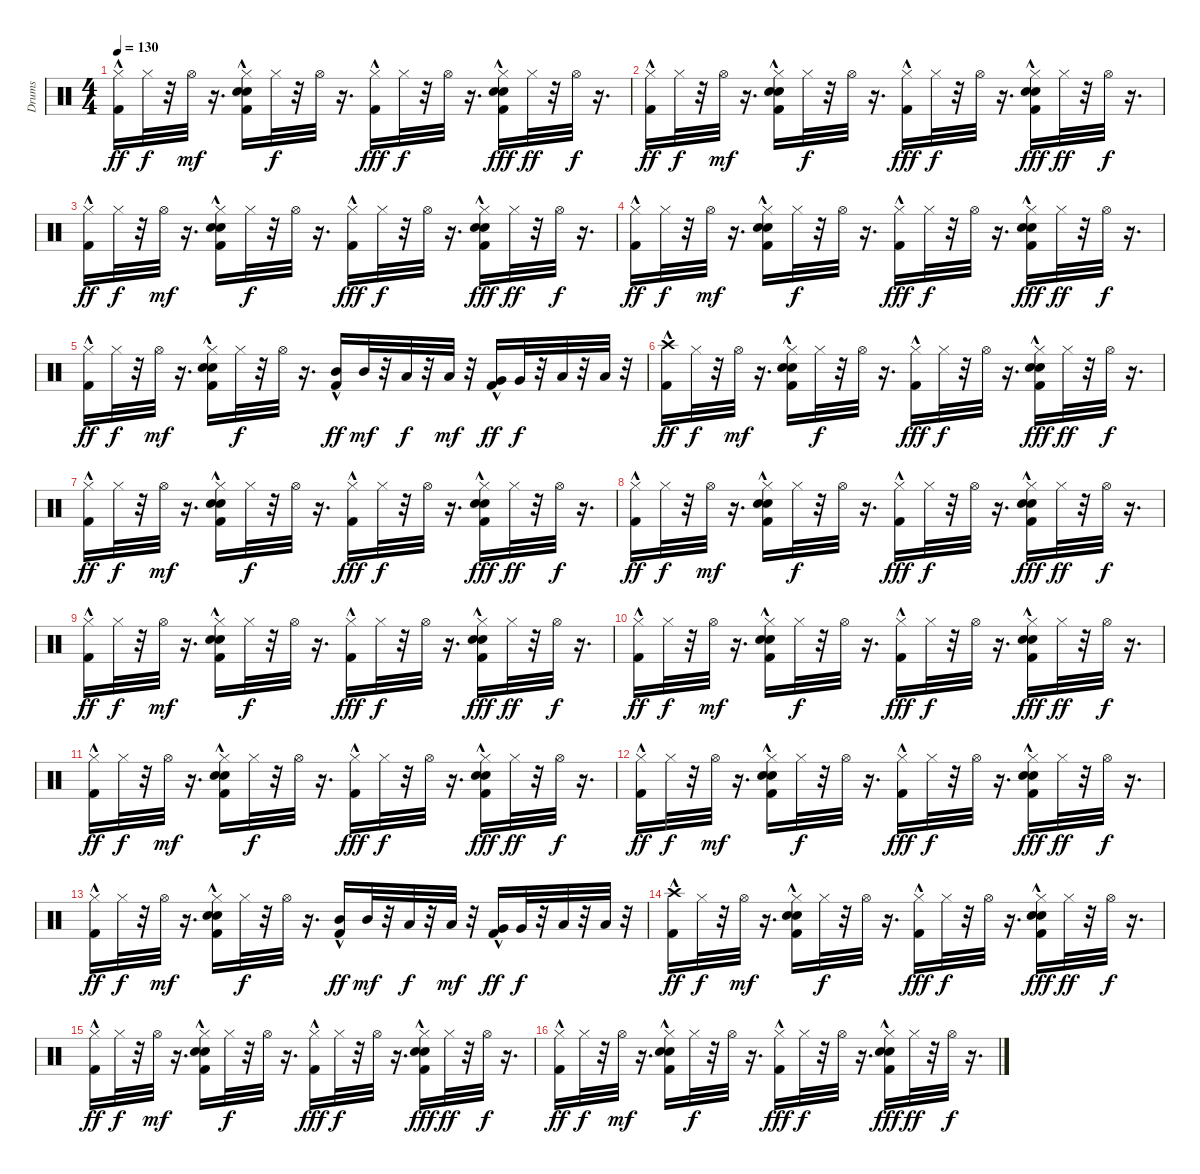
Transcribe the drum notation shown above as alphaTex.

\track ("Drums" "Drums") {instrument percussion}
\staff {score}
\articulation defaults
\ts (4 4)
\tempo 130
\clef neutral
\ks c
("Kick (hit) 2"{hac} "Hi-Hat (closed)").16{dy ff} "Hi-Hat (closed)".32{dy f} r.32 "Hi-Hat (open)".32{dy mf} r.16{d} ("Kick (hit) 2"{hac} "Hand Clap (hit)" "Electric Snare (hit)" "Hi-Hat (closed)").16 "Hi-Hat (closed)".32{dy f} r.32 "Hi-Hat (open)".32 r.16{d} ("Kick (hit) 2"{hac} "Hi-Hat (closed)").16{dy fff} "Hi-Hat (closed)".32{dy f} r.32 "Hi-Hat (open)".32 r.16{d} ("Kick (hit) 2"{hac} "Hand Clap (hit)" "Electric Snare (hit)" "Hi-Hat (closed)").16{dy fff} "Hi-Hat (closed)".32{dy ff} r.32 "Hi-Hat (open)".32{dy f} r.16{d} |
("Kick (hit) 2"{hac} "Hi-Hat (closed)").16{dy ff} "Hi-Hat (closed)".32{dy f} r.32 "Hi-Hat (open)".32{dy mf} r.16{d} ("Kick (hit) 2"{hac} "Hand Clap (hit)" "Electric Snare (hit)" "Hi-Hat (closed)").16 "Hi-Hat (closed)".32{dy f} r.32 "Hi-Hat (open)".32 r.16{d} ("Kick (hit) 2"{hac} "Hi-Hat (closed)").16{dy fff} "Hi-Hat (closed)".32{dy f} r.32 "Hi-Hat (open)".32 r.16{d} ("Kick (hit) 2"{hac} "Hand Clap (hit)" "Electric Snare (hit)" "Hi-Hat (closed)").16{dy fff} "Hi-Hat (closed)".32{dy ff} r.32 "Hi-Hat (open)".32{dy f} r.16{d} |
("Kick (hit) 2"{hac} "Hi-Hat (closed)").16{dy ff} "Hi-Hat (closed)".32{dy f} r.32 "Hi-Hat (open)".32{dy mf} r.16{d} ("Kick (hit) 2"{hac} "Hand Clap (hit)" "Electric Snare (hit)" "Hi-Hat (closed)").16 "Hi-Hat (closed)".32{dy f} r.32 "Hi-Hat (open)".32 r.16{d} ("Kick (hit) 2"{hac} "Hi-Hat (closed)").16{dy fff} "Hi-Hat (closed)".32{dy f} r.32 "Hi-Hat (open)".32 r.16{d} ("Kick (hit) 2"{hac} "Hand Clap (hit)" "Electric Snare (hit)" "Hi-Hat (closed)").16{dy fff} "Hi-Hat (closed)".32{dy ff} r.32 "Hi-Hat (open)".32{dy f} r.16{d} |
("Kick (hit) 2"{hac} "Hi-Hat (closed)").16{dy ff} "Hi-Hat (closed)".32{dy f} r.32 "Hi-Hat (open)".32{dy mf} r.16{d} ("Kick (hit) 2"{hac} "Hand Clap (hit)" "Electric Snare (hit)" "Hi-Hat (closed)").16 "Hi-Hat (closed)".32{dy f} r.32 "Hi-Hat (open)".32 r.16{d} ("Kick (hit) 2"{hac} "Hi-Hat (closed)").16{dy fff} "Hi-Hat (closed)".32{dy f} r.32 "Hi-Hat (open)".32 r.16{d} ("Kick (hit) 2"{hac} "Hand Clap (hit)" "Electric Snare (hit)" "Hi-Hat (closed)").16{dy fff} "Hi-Hat (closed)".32{dy ff} r.32 "Hi-Hat (open)".32{dy f} r.16{d} |
("Kick (hit) 2"{hac} "Hi-Hat (closed)").16{dy ff} "Hi-Hat (closed)".32{dy f} r.32 "Hi-Hat (open)".32{dy mf} r.16{d} ("Kick (hit) 2"{hac} "Hand Clap (hit)" "Electric Snare (hit)" "Hi-Hat (closed)").16 "Hi-Hat (closed)".32{dy f} r.32 "Hi-Hat (open)".32 r.16{d} ("Kick (hit) 2"{hac} "Mid Tom (hit)").16{dy ff} "Mid Tom (hit)".32{dy mf} r.32 "Low Tom (hit)".32{dy f} r.32 "Low Tom (hit)".32{dy mf} r.32 ("Kick (hit) 2"{hac} "Very Low Tom (hit)").16{dy ff} "Very Low Tom (hit)".32{dy f} r.32 "Low Floor Tom (hit)".32 r.32 "Low Floor Tom (hit)".32 r.32 |
("Kick (hit) 2"{hac} "Crash high (hit)").16{dy ff} "Hi-Hat (closed)".32{dy f} r.32 "Hi-Hat (open)".32{dy mf} r.16{d} ("Kick (hit) 2"{hac} "Hand Clap (hit)" "Electric Snare (hit)" "Hi-Hat (closed)").16 "Hi-Hat (closed)".32{dy f} r.32 "Hi-Hat (open)".32 r.16{d} ("Kick (hit) 2"{hac} "Hi-Hat (closed)").16{dy fff} "Hi-Hat (closed)".32{dy f} r.32 "Hi-Hat (open)".32 r.16{d} ("Kick (hit) 2"{hac} "Hand Clap (hit)" "Electric Snare (hit)" "Hi-Hat (closed)").16{dy fff} "Hi-Hat (closed)".32{dy ff} r.32 "Hi-Hat (open)".32{dy f} r.16{d} |
("Kick (hit) 2"{hac} "Hi-Hat (closed)").16{dy ff} "Hi-Hat (closed)".32{dy f} r.32 "Hi-Hat (open)".32{dy mf} r.16{d} ("Kick (hit) 2"{hac} "Hand Clap (hit)" "Electric Snare (hit)" "Hi-Hat (closed)").16 "Hi-Hat (closed)".32{dy f} r.32 "Hi-Hat (open)".32 r.16{d} ("Kick (hit) 2"{hac} "Hi-Hat (closed)").16{dy fff} "Hi-Hat (closed)".32{dy f} r.32 "Hi-Hat (open)".32 r.16{d} ("Kick (hit) 2"{hac} "Hand Clap (hit)" "Electric Snare (hit)" "Hi-Hat (closed)").16{dy fff} "Hi-Hat (closed)".32{dy ff} r.32 "Hi-Hat (open)".32{dy f} r.16{d} |
("Kick (hit) 2"{hac} "Hi-Hat (closed)").16{dy ff} "Hi-Hat (closed)".32{dy f} r.32 "Hi-Hat (open)".32{dy mf} r.16{d} ("Kick (hit) 2"{hac} "Hand Clap (hit)" "Electric Snare (hit)" "Hi-Hat (closed)").16 "Hi-Hat (closed)".32{dy f} r.32 "Hi-Hat (open)".32 r.16{d} ("Kick (hit) 2"{hac} "Hi-Hat (closed)").16{dy fff} "Hi-Hat (closed)".32{dy f} r.32 "Hi-Hat (open)".32 r.16{d} ("Kick (hit) 2"{hac} "Hand Clap (hit)" "Electric Snare (hit)" "Hi-Hat (closed)").16{dy fff} "Hi-Hat (closed)".32{dy ff} r.32 "Hi-Hat (open)".32{dy f} r.16{d} |
("Kick (hit) 2"{hac} "Hi-Hat (closed)").16{dy ff} "Hi-Hat (closed)".32{dy f} r.32 "Hi-Hat (open)".32{dy mf} r.16{d} ("Kick (hit) 2"{hac} "Hand Clap (hit)" "Electric Snare (hit)" "Hi-Hat (closed)").16 "Hi-Hat (closed)".32{dy f} r.32 "Hi-Hat (open)".32 r.16{d} ("Kick (hit) 2"{hac} "Hi-Hat (closed)").16{dy fff} "Hi-Hat (closed)".32{dy f} r.32 "Hi-Hat (open)".32 r.16{d} ("Kick (hit) 2"{hac} "Hand Clap (hit)" "Electric Snare (hit)" "Hi-Hat (closed)").16{dy fff} "Hi-Hat (closed)".32{dy ff} r.32 "Hi-Hat (open)".32{dy f} r.16{d} |
("Kick (hit) 2"{hac} "Hi-Hat (closed)").16{dy ff} "Hi-Hat (closed)".32{dy f} r.32 "Hi-Hat (open)".32{dy mf} r.16{d} ("Kick (hit) 2"{hac} "Hand Clap (hit)" "Electric Snare (hit)" "Hi-Hat (closed)").16 "Hi-Hat (closed)".32{dy f} r.32 "Hi-Hat (open)".32 r.16{d} ("Kick (hit) 2"{hac} "Hi-Hat (closed)").16{dy fff} "Hi-Hat (closed)".32{dy f} r.32 "Hi-Hat (open)".32 r.16{d} ("Kick (hit) 2"{hac} "Hand Clap (hit)" "Electric Snare (hit)" "Hi-Hat (closed)").16{dy fff} "Hi-Hat (closed)".32{dy ff} r.32 "Hi-Hat (open)".32{dy f} r.16{d} |
("Kick (hit) 2"{hac} "Hi-Hat (closed)").16{dy ff} "Hi-Hat (closed)".32{dy f} r.32 "Hi-Hat (open)".32{dy mf} r.16{d} ("Kick (hit) 2"{hac} "Hand Clap (hit)" "Electric Snare (hit)" "Hi-Hat (closed)").16 "Hi-Hat (closed)".32{dy f} r.32 "Hi-Hat (open)".32 r.16{d} ("Kick (hit) 2"{hac} "Hi-Hat (closed)").16{dy fff} "Hi-Hat (closed)".32{dy f} r.32 "Hi-Hat (open)".32 r.16{d} ("Kick (hit) 2"{hac} "Hand Clap (hit)" "Electric Snare (hit)" "Hi-Hat (closed)").16{dy fff} "Hi-Hat (closed)".32{dy ff} r.32 "Hi-Hat (open)".32{dy f} r.16{d} |
("Kick (hit) 2"{hac} "Hi-Hat (closed)").16{dy ff} "Hi-Hat (closed)".32{dy f} r.32 "Hi-Hat (open)".32{dy mf} r.16{d} ("Kick (hit) 2"{hac} "Hand Clap (hit)" "Electric Snare (hit)" "Hi-Hat (closed)").16 "Hi-Hat (closed)".32{dy f} r.32 "Hi-Hat (open)".32 r.16{d} ("Kick (hit) 2"{hac} "Hi-Hat (closed)").16{dy fff} "Hi-Hat (closed)".32{dy f} r.32 "Hi-Hat (open)".32 r.16{d} ("Kick (hit) 2"{hac} "Hand Clap (hit)" "Electric Snare (hit)" "Hi-Hat (closed)").16{dy fff} "Hi-Hat (closed)".32{dy ff} r.32 "Hi-Hat (open)".32{dy f} r.16{d} |
("Kick (hit) 2"{hac} "Hi-Hat (closed)").16{dy ff} "Hi-Hat (closed)".32{dy f} r.32 "Hi-Hat (open)".32{dy mf} r.16{d} ("Kick (hit) 2"{hac} "Hand Clap (hit)" "Electric Snare (hit)" "Hi-Hat (closed)").16 "Hi-Hat (closed)".32{dy f} r.32 "Hi-Hat (open)".32 r.16{d} ("Kick (hit) 2"{hac} "Mid Tom (hit)").16{dy ff} "Mid Tom (hit)".32{dy mf} r.32 "Low Tom (hit)".32{dy f} r.32 "Low Tom (hit)".32{dy mf} r.32 ("Kick (hit) 2"{hac} "Very Low Tom (hit)").16{dy ff} "Very Low Tom (hit)".32{dy f} r.32 "Low Floor Tom (hit)".32 r.32 "Low Floor Tom (hit)".32 r.32 |
("Kick (hit) 2"{hac} "Crash high (hit)").16{dy ff} "Hi-Hat (closed)".32{dy f} r.32 "Hi-Hat (open)".32{dy mf} r.16{d} ("Kick (hit) 2"{hac} "Hand Clap (hit)" "Electric Snare (hit)" "Hi-Hat (closed)").16 "Hi-Hat (closed)".32{dy f} r.32 "Hi-Hat (open)".32 r.16{d} ("Kick (hit) 2"{hac} "Hi-Hat (closed)").16{dy fff} "Hi-Hat (closed)".32{dy f} r.32 "Hi-Hat (open)".32 r.16{d} ("Kick (hit) 2"{hac} "Hand Clap (hit)" "Electric Snare (hit)" "Hi-Hat (closed)").16{dy fff} "Hi-Hat (closed)".32{dy ff} r.32 "Hi-Hat (open)".32{dy f} r.16{d} |
("Kick (hit) 2"{hac} "Hi-Hat (closed)").16{dy ff} "Hi-Hat (closed)".32{dy f} r.32 "Hi-Hat (open)".32{dy mf} r.16{d} ("Kick (hit) 2"{hac} "Hand Clap (hit)" "Electric Snare (hit)" "Hi-Hat (closed)").16 "Hi-Hat (closed)".32{dy f} r.32 "Hi-Hat (open)".32 r.16{d} ("Kick (hit) 2"{hac} "Hi-Hat (closed)").16{dy fff} "Hi-Hat (closed)".32{dy f} r.32 "Hi-Hat (open)".32 r.16{d} ("Kick (hit) 2"{hac} "Hand Clap (hit)" "Electric Snare (hit)" "Hi-Hat (closed)").16{dy fff} "Hi-Hat (closed)".32{dy ff} r.32 "Hi-Hat (open)".32{dy f} r.16{d} |
("Kick (hit) 2"{hac} "Hi-Hat (closed)").16{dy ff} "Hi-Hat (closed)".32{dy f} r.32 "Hi-Hat (open)".32{dy mf} r.16{d} ("Kick (hit) 2"{hac} "Hand Clap (hit)" "Electric Snare (hit)" "Hi-Hat (closed)").16 "Hi-Hat (closed)".32{dy f} r.32 "Hi-Hat (open)".32 r.16{d} ("Kick (hit) 2"{hac} "Hi-Hat (closed)").16{dy fff} "Hi-Hat (closed)".32{dy f} r.32 "Hi-Hat (open)".32 r.16{d} ("Kick (hit) 2"{hac} "Hand Clap (hit)" "Electric Snare (hit)" "Hi-Hat (closed)").16{dy fff} "Hi-Hat (closed)".32{dy ff} r.32 "Hi-Hat (open)".32{dy f} r.16{d}
